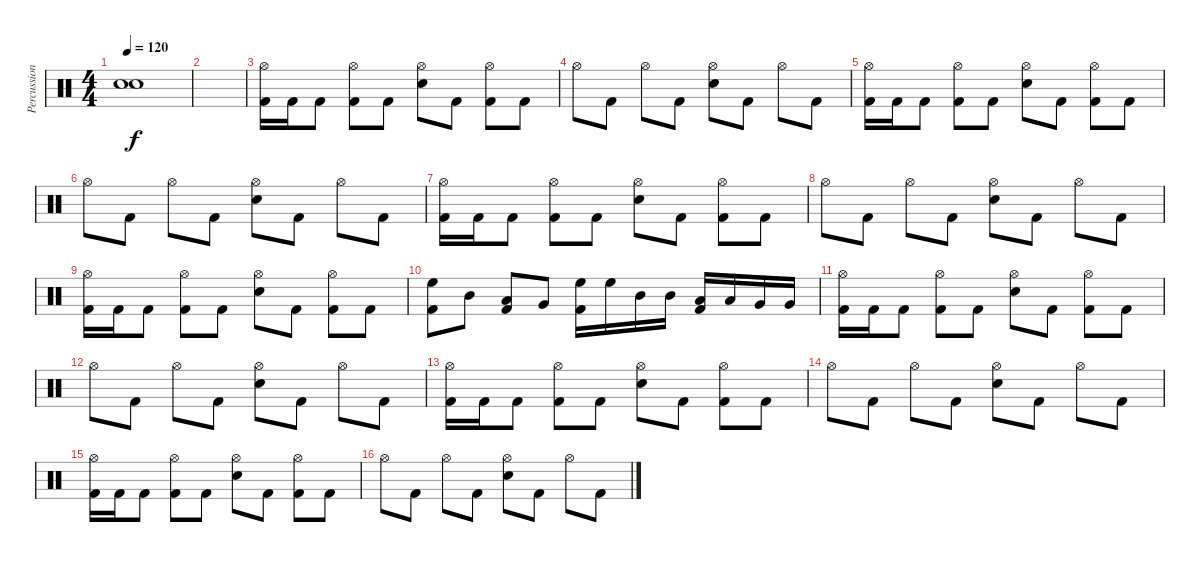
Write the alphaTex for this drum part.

\track ("Percussion" "Percussion") {instrument percussion}
\staff {score}
\articulation defaults
\ts (4 4)
\tempo 120
\clef neutral
\ks c
("Snare (hit)"{t} "Snare (hit)"{t}).1{dy f} |
|
("Hi-Hat (open)" "Kick (hit) 2").16 "Kick (hit) 2".16 "Kick (hit) 2".8 ("Hi-Hat (open)" "Kick (hit) 2").8 "Kick (hit) 2".8 ("Hi-Hat (open)" "Snare (hit) 2").8 "Kick (hit) 2".8 ("Hi-Hat (open)" "Kick (hit) 2").8 "Kick (hit) 2".8 |
"Hi-Hat (open)".8 "Kick (hit) 2".8 "Hi-Hat (open)".8 "Kick (hit) 2".8 ("Hi-Hat (open)" "Snare (hit) 2").8 "Kick (hit) 2".8 "Hi-Hat (open)".8 "Kick (hit) 2".8 |
("Hi-Hat (open)" "Kick (hit) 2").16 "Kick (hit) 2".16 "Kick (hit) 2".8 ("Hi-Hat (open)" "Kick (hit) 2").8 "Kick (hit) 2".8 ("Hi-Hat (open)" "Snare (hit) 2").8 "Kick (hit) 2".8 ("Hi-Hat (open)" "Kick (hit) 2").8 "Kick (hit) 2".8 |
"Hi-Hat (open)".8 "Kick (hit) 2".8 "Hi-Hat (open)".8 "Kick (hit) 2".8 ("Hi-Hat (open)" "Snare (hit) 2").8 "Kick (hit) 2".8 "Hi-Hat (open)".8 "Kick (hit) 2".8 |
("Hi-Hat (open)" "Kick (hit) 2").16 "Kick (hit) 2".16 "Kick (hit) 2".8 ("Hi-Hat (open)" "Kick (hit) 2").8 "Kick (hit) 2".8 ("Hi-Hat (open)" "Snare (hit) 2").8 "Kick (hit) 2".8 ("Hi-Hat (open)" "Kick (hit) 2").8 "Kick (hit) 2".8 |
"Hi-Hat (open)".8 "Kick (hit) 2".8 "Hi-Hat (open)".8 "Kick (hit) 2".8 ("Hi-Hat (open)" "Snare (hit) 2").8 "Kick (hit) 2".8 "Hi-Hat (open)".8 "Kick (hit) 2".8 |
("Hi-Hat (open)" "Kick (hit) 2").16 "Kick (hit) 2".16 "Kick (hit) 2".8 ("Hi-Hat (open)" "Kick (hit) 2").8 "Kick (hit) 2".8 ("Hi-Hat (open)" "Snare (hit) 2").8 "Kick (hit) 2".8 ("Hi-Hat (open)" "Kick (hit) 2").8 "Kick (hit) 2".8 |
("Kick (hit) 2" "High Floor Tom (hit)").8 "Mid Tom (hit)".8 ("Kick (hit) 2" "Low Tom (hit)").8 "Very Low Tom (hit)".8 ("Kick (hit) 2" "High Floor Tom (hit)").16 "High Floor Tom (hit)".16 "Mid Tom (hit)".16 "Mid Tom (hit)".16 ("Kick (hit) 2" "Low Tom (hit)").16 "Low Tom (hit)".16 "Very Low Tom (hit)".16 "Very Low Tom (hit)".16 |
("Hi-Hat (open)" "Kick (hit) 2").16 "Kick (hit) 2".16 "Kick (hit) 2".8 ("Hi-Hat (open)" "Kick (hit) 2").8 "Kick (hit) 2".8 ("Hi-Hat (open)" "Snare (hit) 2").8 "Kick (hit) 2".8 ("Hi-Hat (open)" "Kick (hit) 2").8 "Kick (hit) 2".8 |
"Hi-Hat (open)".8 "Kick (hit) 2".8 "Hi-Hat (open)".8 "Kick (hit) 2".8 ("Hi-Hat (open)" "Snare (hit) 2").8 "Kick (hit) 2".8 "Hi-Hat (open)".8 "Kick (hit) 2".8 |
("Hi-Hat (open)" "Kick (hit) 2").16 "Kick (hit) 2".16 "Kick (hit) 2".8 ("Hi-Hat (open)" "Kick (hit) 2").8 "Kick (hit) 2".8 ("Hi-Hat (open)" "Snare (hit) 2").8 "Kick (hit) 2".8 ("Hi-Hat (open)" "Kick (hit) 2").8 "Kick (hit) 2".8 |
"Hi-Hat (open)".8 "Kick (hit) 2".8 "Hi-Hat (open)".8 "Kick (hit) 2".8 ("Hi-Hat (open)" "Snare (hit) 2").8 "Kick (hit) 2".8 "Hi-Hat (open)".8 "Kick (hit) 2".8 |
("Hi-Hat (open)" "Kick (hit) 2").16 "Kick (hit) 2".16 "Kick (hit) 2".8 ("Hi-Hat (open)" "Kick (hit) 2").8 "Kick (hit) 2".8 ("Hi-Hat (open)" "Snare (hit) 2").8 "Kick (hit) 2".8 ("Hi-Hat (open)" "Kick (hit) 2").8 "Kick (hit) 2".8 |
"Hi-Hat (open)".8 "Kick (hit) 2".8 "Hi-Hat (open)".8 "Kick (hit) 2".8 ("Hi-Hat (open)" "Snare (hit) 2").8 "Kick (hit) 2".8 "Hi-Hat (open)".8 "Kick (hit) 2".8
